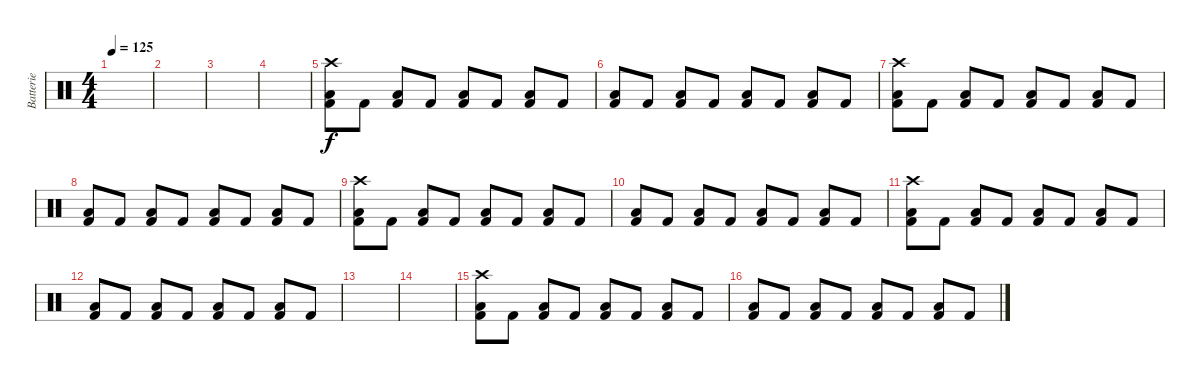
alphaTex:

\track ("Batterie" "Batterie") {instrument percussion}
\staff {score}
\articulation defaults
\ts (4 4)
\tempo 125
\clef neutral
\ks c
|
|
|
|
("Crash high (hit)" "Kick (hit) 2" "Low Tom (hit)").8 "Kick (hit) 2".8 ("Low Tom (hit)" "Kick (hit) 2").8 "Kick (hit) 2".8 ("Low Tom (hit)" "Kick (hit) 2").8 "Kick (hit) 2".8 ("Low Tom (hit)" "Kick (hit) 2").8 "Kick (hit) 2".8 |
("Low Tom (hit)" "Kick (hit) 2").8 "Kick (hit) 2".8 ("Low Tom (hit)" "Kick (hit) 2").8 "Kick (hit) 2".8 ("Low Tom (hit)" "Kick (hit) 2").8 "Kick (hit) 2".8 ("Low Tom (hit)" "Kick (hit) 2").8 "Kick (hit) 2".8 |
("Crash high (hit)" "Kick (hit) 2" "Low Tom (hit)").8 "Kick (hit) 2".8 ("Low Tom (hit)" "Kick (hit) 2").8 "Kick (hit) 2".8 ("Low Tom (hit)" "Kick (hit) 2").8 "Kick (hit) 2".8 ("Low Tom (hit)" "Kick (hit) 2").8 "Kick (hit) 2".8 |
("Low Tom (hit)" "Kick (hit) 2").8 "Kick (hit) 2".8 ("Low Tom (hit)" "Kick (hit) 2").8 "Kick (hit) 2".8 ("Low Tom (hit)" "Kick (hit) 2").8 "Kick (hit) 2".8 ("Low Tom (hit)" "Kick (hit) 2").8 "Kick (hit) 2".8 |
("Crash high (hit)" "Kick (hit) 2" "Low Tom (hit)").8 "Kick (hit) 2".8 ("Low Tom (hit)" "Kick (hit) 2").8 "Kick (hit) 2".8 ("Low Tom (hit)" "Kick (hit) 2").8 "Kick (hit) 2".8 ("Low Tom (hit)" "Kick (hit) 2").8 "Kick (hit) 2".8 |
("Low Tom (hit)" "Kick (hit) 2").8 "Kick (hit) 2".8 ("Low Tom (hit)" "Kick (hit) 2").8 "Kick (hit) 2".8 ("Low Tom (hit)" "Kick (hit) 2").8 "Kick (hit) 2".8 ("Low Tom (hit)" "Kick (hit) 2").8 "Kick (hit) 2".8 |
("Crash high (hit)" "Kick (hit) 2" "Low Tom (hit)").8 "Kick (hit) 2".8 ("Low Tom (hit)" "Kick (hit) 2").8 "Kick (hit) 2".8 ("Low Tom (hit)" "Kick (hit) 2").8 "Kick (hit) 2".8 ("Low Tom (hit)" "Kick (hit) 2").8 "Kick (hit) 2".8 |
("Low Tom (hit)" "Kick (hit) 2").8 "Kick (hit) 2".8 ("Low Tom (hit)" "Kick (hit) 2").8 "Kick (hit) 2".8 ("Low Tom (hit)" "Kick (hit) 2").8 "Kick (hit) 2".8 ("Low Tom (hit)" "Kick (hit) 2").8 "Kick (hit) 2".8 |
|
|
("Crash high (hit)" "Kick (hit) 2" "Low Tom (hit)").8 "Kick (hit) 2".8 ("Low Tom (hit)" "Kick (hit) 2").8 "Kick (hit) 2".8 ("Low Tom (hit)" "Kick (hit) 2").8 "Kick (hit) 2".8 ("Low Tom (hit)" "Kick (hit) 2").8 "Kick (hit) 2".8 |
("Low Tom (hit)" "Kick (hit) 2").8 "Kick (hit) 2".8 ("Low Tom (hit)" "Kick (hit) 2").8 "Kick (hit) 2".8 ("Low Tom (hit)" "Kick (hit) 2").8 "Kick (hit) 2".8 ("Low Tom (hit)" "Kick (hit) 2").8 "Kick (hit) 2".8
